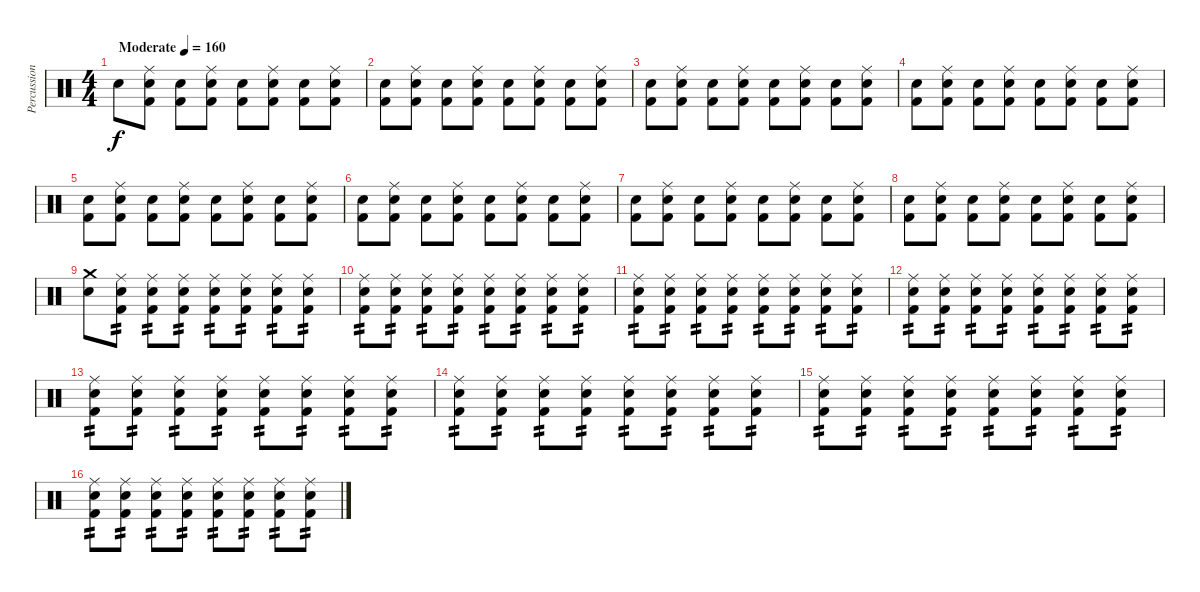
\track ("Percussion" "Percussion") {instrument percussion}
\staff {score}
\articulation defaults
\ts (4 4)
\tempo (160 "Moderate")
\clef neutral
\ks c "Electric Snare (hit)".8{dy f}
("Electric Snare (hit)" "Kick (hit) 2" "Ride (middle)").8 ("Electric Snare (hit)" "Kick (hit) 2").8 ("Electric Snare (hit)" "Kick (hit) 2" "Ride (middle)").8 ("Electric Snare (hit)" "Kick (hit) 2").8 ("Electric Snare (hit)" "Kick (hit) 2" "Ride (middle)").8 ("Electric Snare (hit)" "Kick (hit) 2").8 ("Electric Snare (hit)" "Kick (hit) 2" "Ride (middle)").8 |
("Electric Snare (hit)" "Kick (hit) 2").8 ("Electric Snare (hit)" "Kick (hit) 2" "Ride (middle)").8 ("Electric Snare (hit)" "Kick (hit) 2").8 ("Electric Snare (hit)" "Kick (hit) 2" "Ride (middle)").8 ("Electric Snare (hit)" "Kick (hit) 2").8 ("Electric Snare (hit)" "Kick (hit) 2" "Ride (middle)").8 ("Electric Snare (hit)" "Kick (hit) 2").8 ("Electric Snare (hit)" "Kick (hit) 2" "Ride (middle)").8 |
("Electric Snare (hit)" "Kick (hit) 2").8 ("Electric Snare (hit)" "Kick (hit) 2" "Ride (middle)").8 ("Electric Snare (hit)" "Kick (hit) 2").8 ("Electric Snare (hit)" "Kick (hit) 2" "Ride (middle)").8 ("Electric Snare (hit)" "Kick (hit) 2").8 ("Electric Snare (hit)" "Kick (hit) 2" "Ride (middle)").8 ("Electric Snare (hit)" "Kick (hit) 2").8 ("Electric Snare (hit)" "Kick (hit) 2" "Ride (middle)").8 |
("Electric Snare (hit)" "Kick (hit) 2").8 ("Electric Snare (hit)" "Kick (hit) 2" "Ride (middle)").8 ("Electric Snare (hit)" "Kick (hit) 2").8 ("Electric Snare (hit)" "Kick (hit) 2" "Ride (middle)").8 ("Electric Snare (hit)" "Kick (hit) 2").8 ("Electric Snare (hit)" "Kick (hit) 2" "Ride (middle)").8 ("Electric Snare (hit)" "Kick (hit) 2").8 ("Electric Snare (hit)" "Kick (hit) 2" "Ride (middle)").8 |
("Electric Snare (hit)" "Kick (hit) 2").8 ("Electric Snare (hit)" "Kick (hit) 2" "Ride (middle)").8 ("Electric Snare (hit)" "Kick (hit) 2").8 ("Electric Snare (hit)" "Kick (hit) 2" "Ride (middle)").8 ("Electric Snare (hit)" "Kick (hit) 2").8 ("Electric Snare (hit)" "Kick (hit) 2" "Ride (middle)").8 ("Electric Snare (hit)" "Kick (hit) 2").8 ("Electric Snare (hit)" "Kick (hit) 2" "Ride (middle)").8 |
("Electric Snare (hit)" "Kick (hit) 2").8 ("Electric Snare (hit)" "Kick (hit) 2" "Ride (middle)").8 ("Electric Snare (hit)" "Kick (hit) 2").8 ("Electric Snare (hit)" "Kick (hit) 2" "Ride (middle)").8 ("Electric Snare (hit)" "Kick (hit) 2").8 ("Electric Snare (hit)" "Kick (hit) 2" "Ride (middle)").8 ("Electric Snare (hit)" "Kick (hit) 2").8 ("Electric Snare (hit)" "Kick (hit) 2" "Ride (middle)").8 |
("Electric Snare (hit)" "Kick (hit) 2").8 ("Electric Snare (hit)" "Kick (hit) 2" "Ride (middle)").8 ("Electric Snare (hit)" "Kick (hit) 2").8 ("Electric Snare (hit)" "Kick (hit) 2" "Ride (middle)").8 ("Electric Snare (hit)" "Kick (hit) 2").8 ("Electric Snare (hit)" "Kick (hit) 2" "Ride (middle)").8 ("Electric Snare (hit)" "Kick (hit) 2").8 ("Electric Snare (hit)" "Kick (hit) 2" "Ride (middle)").8 |
("Electric Snare (hit)" "Kick (hit) 2").8 ("Electric Snare (hit)" "Kick (hit) 2" "Ride (middle)").8 ("Electric Snare (hit)" "Kick (hit) 2").8 ("Electric Snare (hit)" "Kick (hit) 2" "Ride (middle)").8 ("Electric Snare (hit)" "Kick (hit) 2").8 ("Electric Snare (hit)" "Kick (hit) 2" "Ride (middle)").8 ("Electric Snare (hit)" "Kick (hit) 2").8 ("Electric Snare (hit)" "Kick (hit) 2" "Ride (middle)").8 |
("Electric Snare (hit)" "Crash medium (hit)").8 ("Electric Snare (hit)" "Kick (hit) 2" "Ride (middle)").8{tp 2} ("Electric Snare (hit)" "Kick (hit) 2" "Ride (middle)").8{tp 2} ("Electric Snare (hit)" "Kick (hit) 2" "Ride (middle)").8{tp 2} ("Electric Snare (hit)" "Kick (hit) 2" "Ride (middle)").8{tp 2} ("Electric Snare (hit)" "Kick (hit) 2" "Ride (middle)").8{tp 2} ("Electric Snare (hit)" "Kick (hit) 2" "Ride (middle)").8{tp 2} ("Electric Snare (hit)" "Kick (hit) 2" "Ride (middle)").8{tp 2} |
("Electric Snare (hit)" "Kick (hit) 2" "Ride (middle)").8{tp 2} ("Electric Snare (hit)" "Kick (hit) 2" "Ride (middle)").8{tp 2} ("Electric Snare (hit)" "Kick (hit) 2" "Ride (middle)").8{tp 2} ("Electric Snare (hit)" "Kick (hit) 2" "Ride (middle)").8{tp 2} ("Electric Snare (hit)" "Kick (hit) 2" "Ride (middle)").8{tp 2} ("Electric Snare (hit)" "Kick (hit) 2" "Ride (middle)").8{tp 2} ("Electric Snare (hit)" "Kick (hit) 2" "Ride (middle)").8{tp 2} ("Electric Snare (hit)" "Kick (hit) 2" "Ride (middle)").8{tp 2} |
("Electric Snare (hit)" "Kick (hit) 2" "Ride (middle)").8{tp 2} ("Electric Snare (hit)" "Kick (hit) 2" "Ride (middle)").8{tp 2} ("Electric Snare (hit)" "Kick (hit) 2" "Ride (middle)").8{tp 2} ("Electric Snare (hit)" "Kick (hit) 2" "Ride (middle)").8{tp 2} ("Electric Snare (hit)" "Kick (hit) 2" "Ride (middle)").8{tp 2} ("Electric Snare (hit)" "Kick (hit) 2" "Ride (middle)").8{tp 2} ("Electric Snare (hit)" "Kick (hit) 2" "Ride (middle)").8{tp 2} ("Electric Snare (hit)" "Kick (hit) 2" "Ride (middle)").8{tp 2} |
("Electric Snare (hit)" "Kick (hit) 2" "Ride (middle)").8{tp 2} ("Electric Snare (hit)" "Kick (hit) 2" "Ride (middle)").8{tp 2} ("Electric Snare (hit)" "Kick (hit) 2" "Ride (middle)").8{tp 2} ("Electric Snare (hit)" "Kick (hit) 2" "Ride (middle)").8{tp 2} ("Electric Snare (hit)" "Kick (hit) 2" "Ride (middle)").8{tp 2} ("Electric Snare (hit)" "Kick (hit) 2" "Ride (middle)").8{tp 2} ("Electric Snare (hit)" "Kick (hit) 2" "Ride (middle)").8{tp 2} ("Electric Snare (hit)" "Kick (hit) 2" "Ride (middle)").8{tp 2} |
("Electric Snare (hit)" "Kick (hit) 2" "Ride (middle)").8{tp 2} ("Electric Snare (hit)" "Kick (hit) 2" "Ride (middle)").8{tp 2} ("Electric Snare (hit)" "Kick (hit) 2" "Ride (middle)").8{tp 2} ("Electric Snare (hit)" "Kick (hit) 2" "Ride (middle)").8{tp 2} ("Electric Snare (hit)" "Kick (hit) 2" "Ride (middle)").8{tp 2} ("Electric Snare (hit)" "Kick (hit) 2" "Ride (middle)").8{tp 2} ("Electric Snare (hit)" "Kick (hit) 2" "Ride (middle)").8{tp 2} ("Electric Snare (hit)" "Kick (hit) 2" "Ride (middle)").8{tp 2} |
("Electric Snare (hit)" "Kick (hit) 2" "Ride (middle)").8{tp 2} ("Electric Snare (hit)" "Kick (hit) 2" "Ride (middle)").8{tp 2} ("Electric Snare (hit)" "Kick (hit) 2" "Ride (middle)").8{tp 2} ("Electric Snare (hit)" "Kick (hit) 2" "Ride (middle)").8{tp 2} ("Electric Snare (hit)" "Kick (hit) 2" "Ride (middle)").8{tp 2} ("Electric Snare (hit)" "Kick (hit) 2" "Ride (middle)").8{tp 2} ("Electric Snare (hit)" "Kick (hit) 2" "Ride (middle)").8{tp 2} ("Electric Snare (hit)" "Kick (hit) 2" "Ride (middle)").8{tp 2} |
("Electric Snare (hit)" "Kick (hit) 2" "Ride (middle)").8{tp 2} ("Electric Snare (hit)" "Kick (hit) 2" "Ride (middle)").8{tp 2} ("Electric Snare (hit)" "Kick (hit) 2" "Ride (middle)").8{tp 2} ("Electric Snare (hit)" "Kick (hit) 2" "Ride (middle)").8{tp 2} ("Electric Snare (hit)" "Kick (hit) 2" "Ride (middle)").8{tp 2} ("Electric Snare (hit)" "Kick (hit) 2" "Ride (middle)").8{tp 2} ("Electric Snare (hit)" "Kick (hit) 2" "Ride (middle)").8{tp 2} ("Electric Snare (hit)" "Kick (hit) 2" "Ride (middle)").8{tp 2} |
("Electric Snare (hit)" "Kick (hit) 2" "Ride (middle)").8{tp 2} ("Electric Snare (hit)" "Kick (hit) 2" "Ride (middle)").8{tp 2} ("Electric Snare (hit)" "Kick (hit) 2" "Ride (middle)").8{tp 2} ("Electric Snare (hit)" "Kick (hit) 2" "Ride (middle)").8{tp 2} ("Electric Snare (hit)" "Kick (hit) 2" "Ride (middle)").8{tp 2} ("Electric Snare (hit)" "Kick (hit) 2" "Ride (middle)").8{tp 2} ("Electric Snare (hit)" "Kick (hit) 2" "Ride (middle)").8{tp 2} ("Electric Snare (hit)" "Kick (hit) 2" "Ride (middle)").8{tp 2}
